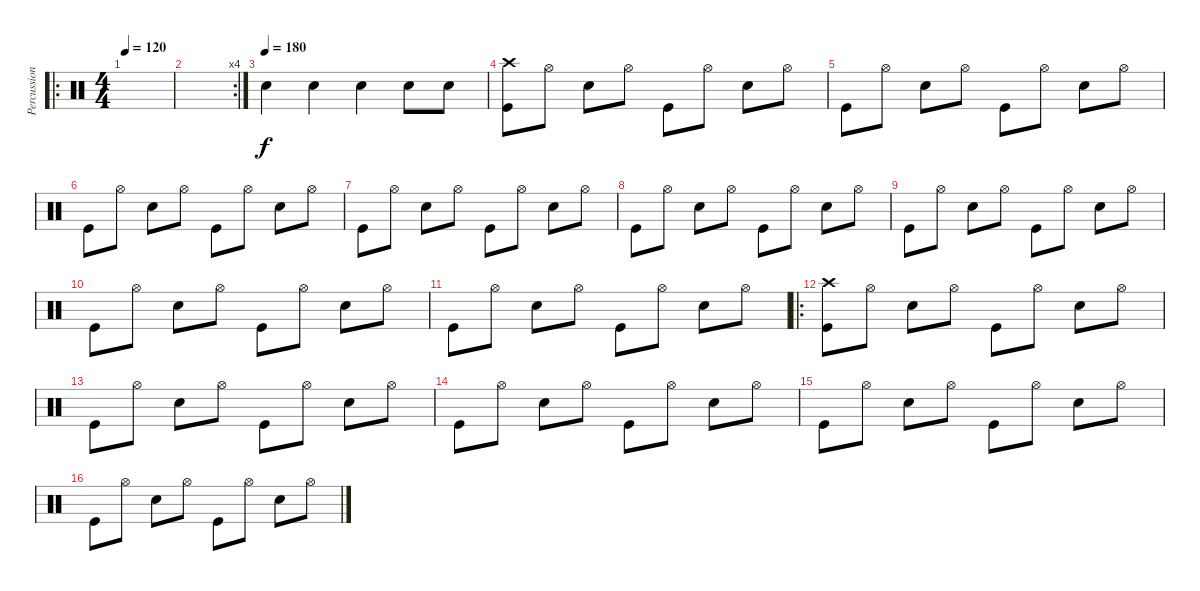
\track ("Percussioni" "Percussion") {instrument percussion}
\staff {score}
\articulation defaults
\ro
\ts (4 4)
\tempo 120
\clef neutral
\ks c
|
\rc 4
|
\tempo 140
\tempo (180)
"Snare (hit) 2".4 "Snare (hit) 2".4 "Snare (hit) 2".4 "Snare (hit) 2".8 "Snare (hit) 2".8 |
("Crash high (hit)" "Kick (hit)").8 "Hi-Hat (open)".8 "Snare (hit) 2".8 "Hi-Hat (open)".8 "Kick (hit)".8 "Hi-Hat (open)".8 "Snare (hit) 2".8 "Hi-Hat (open)".8 |
"Kick (hit)".8 "Hi-Hat (open)".8 "Snare (hit) 2".8 "Hi-Hat (open)".8 "Kick (hit)".8 "Hi-Hat (open)".8 "Snare (hit) 2".8 "Hi-Hat (open)".8 |
"Kick (hit)".8 "Hi-Hat (open)".8 "Snare (hit) 2".8 "Hi-Hat (open)".8 "Kick (hit)".8 "Hi-Hat (open)".8 "Snare (hit) 2".8 "Hi-Hat (open)".8 |
"Kick (hit)".8 "Hi-Hat (open)".8 "Snare (hit) 2".8 "Hi-Hat (open)".8 "Kick (hit)".8 "Hi-Hat (open)".8 "Snare (hit) 2".8 "Hi-Hat (open)".8 |
"Kick (hit)".8 "Hi-Hat (open)".8 "Snare (hit) 2".8 "Hi-Hat (open)".8 "Kick (hit)".8 "Hi-Hat (open)".8 "Snare (hit) 2".8 "Hi-Hat (open)".8 |
"Kick (hit)".8 "Hi-Hat (open)".8 "Snare (hit) 2".8 "Hi-Hat (open)".8 "Kick (hit)".8 "Hi-Hat (open)".8 "Snare (hit) 2".8 "Hi-Hat (open)".8 |
"Kick (hit)".8 "Hi-Hat (open)".8 "Snare (hit) 2".8 "Hi-Hat (open)".8 "Kick (hit)".8 "Hi-Hat (open)".8 "Snare (hit) 2".8 "Hi-Hat (open)".8 |
"Kick (hit)".8 "Hi-Hat (open)".8 "Snare (hit) 2".8 "Hi-Hat (open)".8 "Kick (hit)".8 "Hi-Hat (open)".8 "Snare (hit) 2".8 "Hi-Hat (open)".8 |
\ro
("Crash high (hit)" "Kick (hit)").8 "Hi-Hat (open)".8 "Snare (hit) 2".8 "Hi-Hat (open)".8 "Kick (hit)".8 "Hi-Hat (open)".8 "Snare (hit) 2".8 "Hi-Hat (open)".8 |
"Kick (hit)".8 "Hi-Hat (open)".8 "Snare (hit) 2".8 "Hi-Hat (open)".8 "Kick (hit)".8 "Hi-Hat (open)".8 "Snare (hit) 2".8 "Hi-Hat (open)".8 |
"Kick (hit)".8 "Hi-Hat (open)".8 "Snare (hit) 2".8 "Hi-Hat (open)".8 "Kick (hit)".8 "Hi-Hat (open)".8 "Snare (hit) 2".8 "Hi-Hat (open)".8 |
"Kick (hit)".8 "Hi-Hat (open)".8 "Snare (hit) 2".8 "Hi-Hat (open)".8 "Kick (hit)".8 "Hi-Hat (open)".8 "Snare (hit) 2".8 "Hi-Hat (open)".8 |
"Kick (hit)".8 "Hi-Hat (open)".8 "Snare (hit) 2".8 "Hi-Hat (open)".8 "Kick (hit)".8 "Hi-Hat (open)".8 "Snare (hit) 2".8 "Hi-Hat (open)".8
